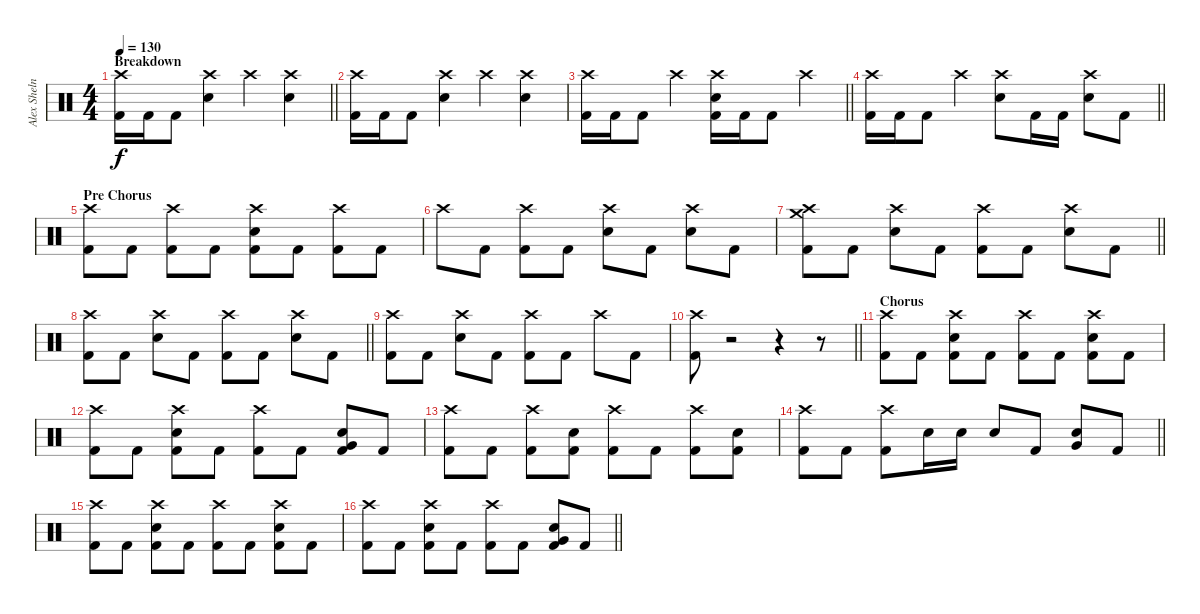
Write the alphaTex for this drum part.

\track ("Alex Shelnutt [Drums]" "Alex Sheln") {instrument percussion}
\staff {score}
\articulation defaults
\ts (4 4)
\section ("" "Breakdown")
\tempo 130
\clef neutral
\barLineRight lightlight
\ks c
("Crash high (hit)" "Kick (hit) 2").16{dy f} "Kick (hit) 2".16 "Kick (hit) 2".8 ("Crash high (hit)" "Electric Snare (hit)").4 "Crash high (hit)".4 ("Crash high (hit)" "Electric Snare (hit)").4 |
("Crash high (hit)" "Kick (hit) 2").16 "Kick (hit) 2".16 "Kick (hit) 2".8 ("Crash high (hit)" "Electric Snare (hit)").4 "Crash high (hit)".4 ("Crash high (hit)" "Electric Snare (hit)").4 |
\barLineRight lightlight
("Crash high (hit)" "Kick (hit) 2").16 "Kick (hit) 2".16 "Kick (hit) 2".8 "Crash high (hit)".4 ("Crash high (hit)" "Electric Snare (hit)" "Kick (hit) 2").16 "Kick (hit) 2".16 "Kick (hit) 2".8 "Crash high (hit)".4 |
\barLineRight lightlight
("Crash high (hit)" "Kick (hit) 2").16 "Kick (hit) 2".16 "Kick (hit) 2".8 "Crash high (hit)".4 ("Crash high (hit)" "Electric Snare (hit)").8 "Kick (hit) 2".16 "Kick (hit) 2".16 ("Crash high (hit)" "Electric Snare (hit)").8 "Kick (hit) 2".8 |
\section ("" "Pre Chorus")
("Crash high (hit)" "Kick (hit) 2").8 "Kick (hit) 2".8 ("Crash high (hit)" "Kick (hit) 2").8 "Kick (hit) 2".8 ("Crash high (hit)" "Electric Snare (hit)" "Kick (hit) 2").8 "Kick (hit) 2".8 ("Crash high (hit)" "Kick (hit) 2").8 "Kick (hit) 2".8 |
"Crash high (hit)".8 "Kick (hit) 2".8 ("Crash high (hit)" "Kick (hit) 2").8 "Kick (hit) 2".8 ("Crash high (hit)" "Electric Snare (hit)").8 "Kick (hit) 2".8 ("Crash high (hit)" "Electric Snare (hit)").8 "Kick (hit) 2".8 |
\barLineRight lightlight
("Crash high (hit)" "Crash medium (hit)" "Kick (hit) 2").8 "Kick (hit) 2".8 ("Crash high (hit)" "Electric Snare (hit)").8 "Kick (hit) 2".8 ("Crash high (hit)" "Kick (hit) 2").8 "Kick (hit) 2".8 ("Crash high (hit)" "Electric Snare (hit)").8 "Kick (hit) 2".8 |
\barLineRight lightlight
("Crash high (hit)" "Kick (hit) 2").8 "Kick (hit) 2".8 ("Crash high (hit)" "Electric Snare (hit)").8 "Kick (hit) 2".8 ("Crash high (hit)" "Kick (hit) 2").8 "Kick (hit) 2".8 ("Crash high (hit)" "Electric Snare (hit)").8 "Kick (hit) 2".8 |
("Crash high (hit)" "Kick (hit) 2").8 "Kick (hit) 2".8 ("Crash high (hit)" "Electric Snare (hit)").8 "Kick (hit) 2".8 ("Crash high (hit)" "Kick (hit) 2").8 "Kick (hit) 2".8 "Crash high (hit)".8 "Kick (hit) 2".8 |
\barLineRight lightlight
("Crash high (hit)" "Kick (hit) 2").8 r.2 r.4 r.8 |
\section ("" "Chorus")
("Crash high (hit)" "Kick (hit) 2").8 "Kick (hit) 2".8 ("Crash high (hit)" "Electric Snare (hit)" "Kick (hit) 2").8 "Kick (hit) 2".8 ("Crash high (hit)" "Kick (hit) 2").8 "Kick (hit) 2".8 ("Crash high (hit)" "Electric Snare (hit)" "Kick (hit) 2").8 "Kick (hit) 2".8 |
("Crash high (hit)" "Kick (hit) 2").8 "Kick (hit) 2".8 ("Crash high (hit)" "Electric Snare (hit)" "Kick (hit) 2").8 "Kick (hit) 2".8 ("Crash high (hit)" "Kick (hit) 2").8 "Kick (hit) 2".8 ("Very Low Tom (hit)" "Electric Snare (hit)" "Kick (hit) 2").8 "Kick (hit) 2".8 |
("Crash high (hit)" "Kick (hit) 2").8 "Kick (hit) 2".8 ("Crash high (hit)" "Kick (hit) 2").8 ("Electric Snare (hit)" "Kick (hit) 2").8 ("Crash high (hit)" "Kick (hit) 2").8 "Kick (hit) 2".8 ("Crash high (hit)" "Kick (hit) 2").8 ("Electric Snare (hit)" "Kick (hit) 2").8 |
\barLineRight lightlight
("Crash high (hit)" "Kick (hit) 2").8 "Kick (hit) 2".8 ("Crash high (hit)" "Kick (hit) 2").8 "Electric Snare (hit)".16 "Electric Snare (hit)".16 "Electric Snare (hit)".8 "Kick (hit) 2".8 ("Very Low Tom (hit)" "Electric Snare (hit)").8 "Kick (hit) 2".8 |
("Crash high (hit)" "Kick (hit) 2").8 "Kick (hit) 2".8 ("Crash high (hit)" "Electric Snare (hit)" "Kick (hit) 2").8 "Kick (hit) 2".8 ("Crash high (hit)" "Kick (hit) 2").8 "Kick (hit) 2".8 ("Crash high (hit)" "Electric Snare (hit)" "Kick (hit) 2").8 "Kick (hit) 2".8 |
\barLineRight lightlight
("Crash high (hit)" "Kick (hit) 2").8 "Kick (hit) 2".8 ("Crash high (hit)" "Electric Snare (hit)" "Kick (hit) 2").8 "Kick (hit) 2".8 ("Crash high (hit)" "Kick (hit) 2").8 "Kick (hit) 2".8 ("Very Low Tom (hit)" "Electric Snare (hit)" "Kick (hit) 2").8 "Kick (hit) 2".8
